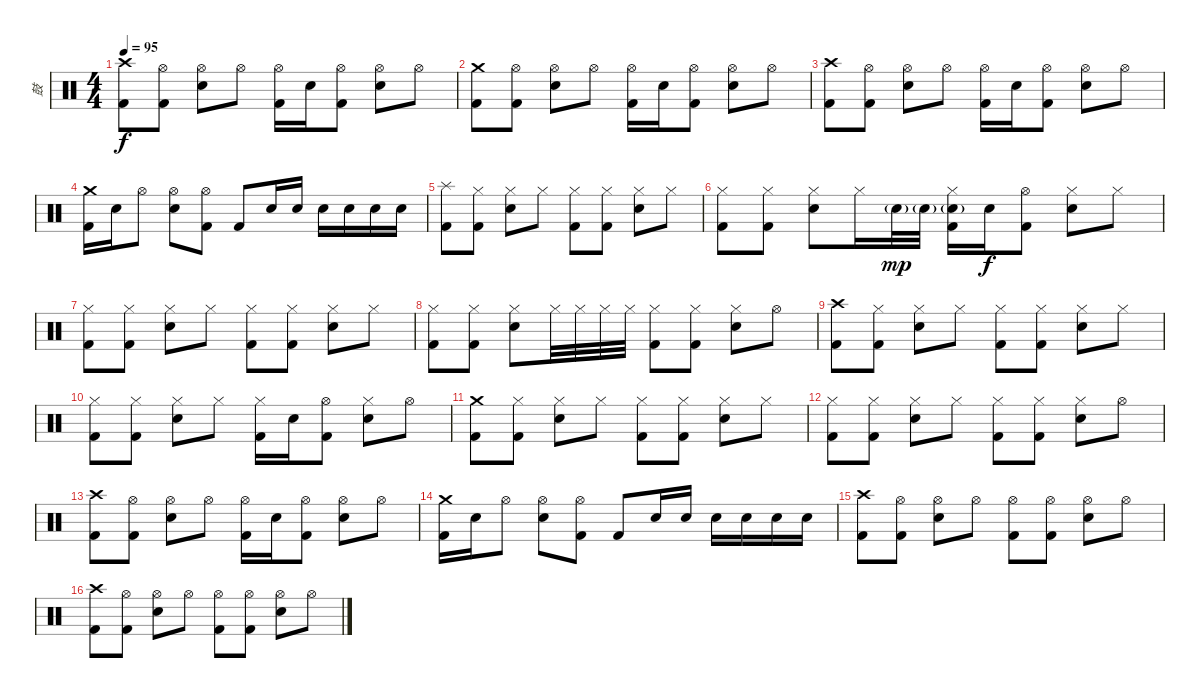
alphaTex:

\track ("鼓" "鼓") {instrument percussion}
\staff {score}
\articulation defaults
\ts (4 4)
\tempo 95
\clef neutral
\ks c
("Crash high (hit)" "Kick (hit) 2").8{dy f} ("Hi-Hat (open)" "Kick (hit) 2").8 ("Hi-Hat (open)" "Snare (hit) 2").8 "Hi-Hat (open)".8 ("Hi-Hat (open)" "Kick (hit) 2").16 "Snare (hit) 2".16 ("Hi-Hat (open)" "Kick (hit) 2").8 ("Hi-Hat (open)" "Snare (hit) 2").8 "Hi-Hat (open)".8 |
("Crash medium (hit)" "Kick (hit) 2").8 ("Hi-Hat (open)" "Kick (hit) 2").8 ("Hi-Hat (open)" "Snare (hit) 2").8 "Hi-Hat (open)".8 ("Hi-Hat (open)" "Kick (hit) 2").16 "Snare (hit) 2".16 ("Hi-Hat (open)" "Kick (hit) 2").8 ("Hi-Hat (open)" "Snare (hit) 2").8 "Hi-Hat (open)".8 |
("Crash high (hit)" "Kick (hit) 2").8 ("Hi-Hat (open)" "Kick (hit) 2").8 ("Hi-Hat (open)" "Snare (hit) 2").8 "Hi-Hat (open)".8 ("Hi-Hat (open)" "Kick (hit) 2").16 "Snare (hit) 2".16 ("Hi-Hat (open)" "Kick (hit) 2").8 ("Hi-Hat (open)" "Snare (hit) 2").8 "Hi-Hat (open)".8 |
("Crash medium (hit)" "Kick (hit) 2").16 "Snare (hit) 2".16 "Hi-Hat (open)".8 ("Hi-Hat (open)" "Snare (hit) 2").8 ("Hi-Hat (open)" "Kick (hit) 2").8 "Kick (hit) 2".8 "Snare (hit) 2".16 "Snare (hit) 2".16 "Snare (hit) 2".16 "Snare (hit) 2".16 "Snare (hit) 2".16 "Snare (hit) 2".16 |
("Splash (hit)" "Kick (hit) 2").8 ("Hi-Hat (closed)" "Kick (hit) 2").8 ("Hi-Hat (closed)" "Snare (hit) 2").8 "Hi-Hat (closed)".8 ("Hi-Hat (closed)" "Kick (hit) 2").8 ("Hi-Hat (closed)" "Kick (hit) 2").8 ("Hi-Hat (closed)" "Snare (hit) 2").8 "Hi-Hat (closed)".8 |
("Hi-Hat (closed)" "Kick (hit) 2").8 ("Hi-Hat (closed)" "Kick (hit) 2").8 ("Hi-Hat (closed)" "Snare (hit) 2").8 "Hi-Hat (closed)".16 "Snare (hit) 2"{g}.32{dy mp} "Snare (hit) 2"{g}.32 ("Hi-Hat (closed)" "Snare (hit) 2"{g} "Kick (hit) 2").16 "Snare (hit) 2".16{dy f} ("Hi-Hat (open)" "Kick (hit) 2").8 ("Hi-Hat (closed)" "Snare (hit) 2").8 "Hi-Hat (closed)".8 |
("Hi-Hat (closed)" "Kick (hit) 2").8 ("Hi-Hat (closed)" "Kick (hit) 2").8 ("Hi-Hat (closed)" "Snare (hit) 2").8 "Hi-Hat (closed)".8 ("Hi-Hat (closed)" "Kick (hit) 2").8 ("Hi-Hat (closed)" "Kick (hit) 2").8 ("Hi-Hat (closed)" "Snare (hit) 2").8 "Hi-Hat (closed)".8 |
("Hi-Hat (closed)" "Kick (hit) 2").8 ("Hi-Hat (closed)" "Kick (hit) 2").8 ("Hi-Hat (closed)" "Snare (hit) 2").8 "Hi-Hat (closed)".32 "Hi-Hat (closed)".32 "Hi-Hat (closed)".32 "Hi-Hat (closed)".32 ("Hi-Hat (closed)" "Kick (hit) 2").8 ("Hi-Hat (closed)" "Kick (hit) 2").8 ("Hi-Hat (closed)" "Snare (hit) 2").8 "Hi-Hat (open)".8 |
("Crash high (hit)" "Kick (hit) 2").8 ("Hi-Hat (closed)" "Kick (hit) 2").8 ("Hi-Hat (closed)" "Snare (hit) 2").8 "Hi-Hat (closed)".8 ("Hi-Hat (closed)" "Kick (hit) 2").8 ("Hi-Hat (closed)" "Kick (hit) 2").8 ("Hi-Hat (closed)" "Snare (hit) 2").8 "Hi-Hat (closed)".8 |
("Hi-Hat (closed)" "Kick (hit) 2").8 ("Hi-Hat (closed)" "Kick (hit) 2").8 ("Hi-Hat (closed)" "Snare (hit) 2").8 "Hi-Hat (closed)".8 ("Hi-Hat (closed)" "Kick (hit) 2").16 "Snare (hit) 2".16 ("Hi-Hat (open)" "Kick (hit) 2").8 ("Hi-Hat (closed)" "Snare (hit) 2").8 "Hi-Hat (open)".8 |
("Crash medium (hit)" "Kick (hit) 2").8 ("Hi-Hat (closed)" "Kick (hit) 2").8 ("Hi-Hat (closed)" "Snare (hit) 2").8 "Hi-Hat (closed)".8 ("Hi-Hat (closed)" "Kick (hit) 2").8 ("Hi-Hat (closed)" "Kick (hit) 2").8 ("Hi-Hat (closed)" "Snare (hit) 2").8 "Hi-Hat (closed)".8 |
("Hi-Hat (closed)" "Kick (hit) 2").8 ("Hi-Hat (closed)" "Kick (hit) 2").8 ("Hi-Hat (closed)" "Snare (hit) 2").8 "Hi-Hat (closed)".8 ("Hi-Hat (closed)" "Kick (hit) 2").8 ("Hi-Hat (closed)" "Kick (hit) 2").8 ("Hi-Hat (closed)" "Snare (hit) 2").8 "Hi-Hat (open)".8 |
("Crash high (hit)" "Kick (hit) 2").8 ("Hi-Hat (open)" "Kick (hit) 2").8 ("Hi-Hat (open)" "Snare (hit) 2").8 "Hi-Hat (open)".8 ("Hi-Hat (open)" "Kick (hit) 2").16 "Snare (hit) 2".16 ("Hi-Hat (open)" "Kick (hit) 2").8 ("Hi-Hat (open)" "Snare (hit) 2").8 "Hi-Hat (open)".8 |
("Crash medium (hit)" "Kick (hit) 2").16 "Snare (hit) 2".16 "Hi-Hat (open)".8 ("Hi-Hat (open)" "Snare (hit) 2").8 ("Hi-Hat (open)" "Kick (hit) 2").8 "Kick (hit) 2".8 "Snare (hit) 2".16 "Snare (hit) 2".16 "Snare (hit) 2".16 "Snare (hit) 2".16 "Snare (hit) 2".16 "Snare (hit) 2".16 |
("Crash high (hit)" "Kick (hit) 2").8 ("Hi-Hat (open)" "Kick (hit) 2").8 ("Hi-Hat (open)" "Snare (hit) 2").8 "Hi-Hat (open)".8 ("Hi-Hat (open)" "Kick (hit) 2").8 ("Hi-Hat (open)" "Kick (hit) 2").8 ("Hi-Hat (open)" "Snare (hit) 2").8 "Hi-Hat (open)".8 |
("Crash high (hit)" "Kick (hit) 2").8 ("Hi-Hat (open)" "Kick (hit) 2").8 ("Hi-Hat (open)" "Snare (hit) 2").8 "Hi-Hat (open)".8 ("Hi-Hat (open)" "Kick (hit) 2").8 ("Hi-Hat (open)" "Kick (hit) 2").8 ("Hi-Hat (open)" "Snare (hit) 2").8 "Hi-Hat (open)".8
